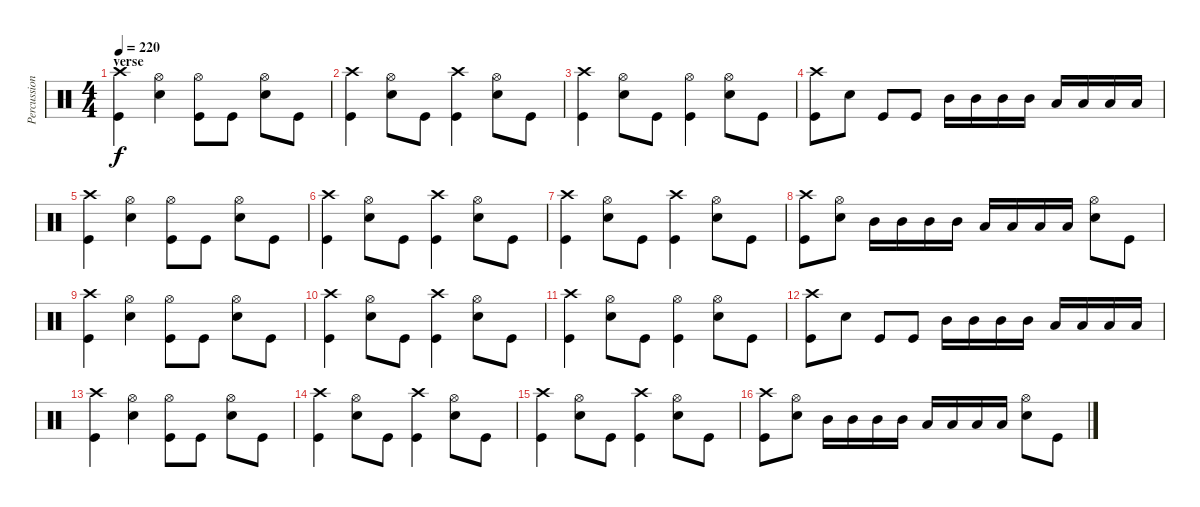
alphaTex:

\track ("Percussion" "Percussion") {instrument percussion}
\staff {score}
\articulation defaults
\ts (4 4)
\section ("" "verse")
\tempo 220
\clef neutral
\ks c
("Crash high (hit)" "Kick (hit)").4{dy f} ("Hi-Hat (open)" "Electric Snare (hit)").4 ("Kick (hit)" "Hi-Hat (open)").8 "Kick (hit)".8 ("Electric Snare (hit)" "Hi-Hat (open)").8 "Kick (hit)".8 |
("Crash high (hit)" "Kick (hit)").4 ("Hi-Hat (open)" "Electric Snare (hit)").8 "Kick (hit)".8 ("Kick (hit)" "Crash high (hit)").4 ("Electric Snare (hit)" "Hi-Hat (open)").8 "Kick (hit)".8 |
("Crash high (hit)" "Kick (hit)").4 ("Hi-Hat (open)" "Electric Snare (hit)").8 "Kick (hit)".8 ("Kick (hit)" "Hi-Hat (open)").4 ("Electric Snare (hit)" "Hi-Hat (open)").8 "Kick (hit)".8 |
("Crash high (hit)" "Kick (hit)").8 "Electric Snare (hit)".8 "Kick (hit)".8 "Kick (hit)".8 "Mid Tom (hit)".16 "Mid Tom (hit)".16 "Mid Tom (hit)".16 "Mid Tom (hit)".16 "Low Tom (hit)".16 "Low Tom (hit)".16 "Low Tom (hit)".16 "Low Tom (hit)".16 |
("Crash high (hit)" "Kick (hit)").4 ("Hi-Hat (open)" "Electric Snare (hit)").4 ("Kick (hit)" "Hi-Hat (open)").8 "Kick (hit)".8 ("Electric Snare (hit)" "Hi-Hat (open)").8 "Kick (hit)".8 |
("Crash high (hit)" "Kick (hit)").4 ("Hi-Hat (open)" "Electric Snare (hit)").8 "Kick (hit)".8 ("Kick (hit)" "Crash high (hit)").4 ("Electric Snare (hit)" "Hi-Hat (open)").8 "Kick (hit)".8 |
("Crash high (hit)" "Kick (hit)").4 ("Hi-Hat (open)" "Electric Snare (hit)").8 "Kick (hit)".8 ("Kick (hit)" "Crash high (hit)").4 ("Electric Snare (hit)" "Hi-Hat (open)").8 "Kick (hit)".8 |
("Crash high (hit)" "Kick (hit)").8 ("Electric Snare (hit)" "Hi-Hat (open)").8 "Mid Tom (hit)".16 "Mid Tom (hit)".16 "Mid Tom (hit)".16 "Mid Tom (hit)".16 "Low Tom (hit)".16 "Low Tom (hit)".16 "Low Tom (hit)".16 "Low Tom (hit)".16 ("Electric Snare (hit)" "Hi-Hat (open)").8 "Kick (hit)".8 |
("Crash high (hit)" "Kick (hit)").4 ("Hi-Hat (open)" "Electric Snare (hit)").4 ("Kick (hit)" "Hi-Hat (open)").8 "Kick (hit)".8 ("Electric Snare (hit)" "Hi-Hat (open)").8 "Kick (hit)".8 |
("Crash high (hit)" "Kick (hit)").4 ("Hi-Hat (open)" "Electric Snare (hit)").8 "Kick (hit)".8 ("Kick (hit)" "Crash high (hit)").4 ("Electric Snare (hit)" "Hi-Hat (open)").8 "Kick (hit)".8 |
("Crash high (hit)" "Kick (hit)").4 ("Hi-Hat (open)" "Electric Snare (hit)").8 "Kick (hit)".8 ("Kick (hit)" "Hi-Hat (open)").4 ("Electric Snare (hit)" "Hi-Hat (open)").8 "Kick (hit)".8 |
("Crash high (hit)" "Kick (hit)").8 "Electric Snare (hit)".8 "Kick (hit)".8 "Kick (hit)".8 "Mid Tom (hit)".16 "Mid Tom (hit)".16 "Mid Tom (hit)".16 "Mid Tom (hit)".16 "Low Tom (hit)".16 "Low Tom (hit)".16 "Low Tom (hit)".16 "Low Tom (hit)".16 |
("Crash high (hit)" "Kick (hit)").4 ("Hi-Hat (open)" "Electric Snare (hit)").4 ("Kick (hit)" "Hi-Hat (open)").8 "Kick (hit)".8 ("Electric Snare (hit)" "Hi-Hat (open)").8 "Kick (hit)".8 |
("Crash high (hit)" "Kick (hit)").4 ("Hi-Hat (open)" "Electric Snare (hit)").8 "Kick (hit)".8 ("Kick (hit)" "Crash high (hit)").4 ("Electric Snare (hit)" "Hi-Hat (open)").8 "Kick (hit)".8 |
("Crash high (hit)" "Kick (hit)").4 ("Hi-Hat (open)" "Electric Snare (hit)").8 "Kick (hit)".8 ("Kick (hit)" "Crash high (hit)").4 ("Electric Snare (hit)" "Hi-Hat (open)").8 "Kick (hit)".8 |
("Crash high (hit)" "Kick (hit)").8 ("Electric Snare (hit)" "Hi-Hat (open)").8 "Mid Tom (hit)".16 "Mid Tom (hit)".16 "Mid Tom (hit)".16 "Mid Tom (hit)".16 "Low Tom (hit)".16 "Low Tom (hit)".16 "Low Tom (hit)".16 "Low Tom (hit)".16 ("Electric Snare (hit)" "Hi-Hat (open)").8 "Kick (hit)".8
